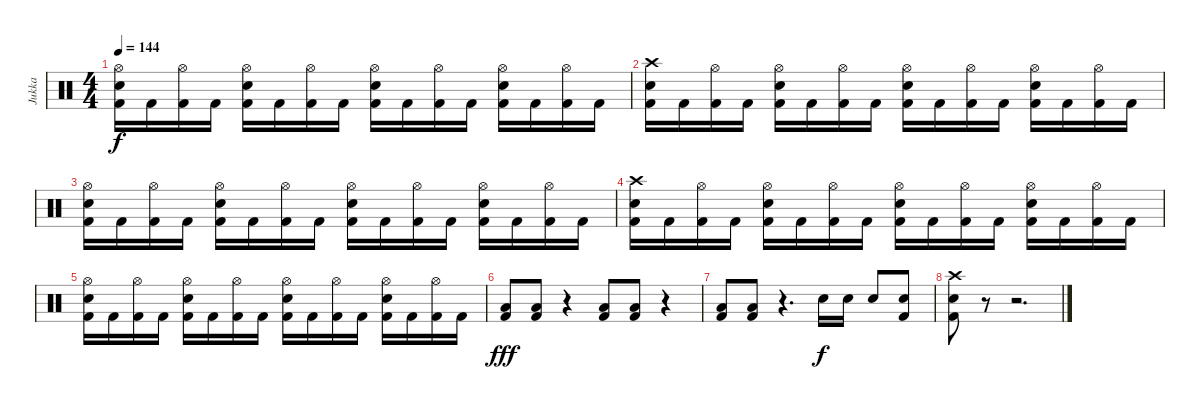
\track ("Jukka" "Jukka") {instrument percussion}
\staff {score}
\articulation defaults
\ts (4 4)
\tempo 144
\clef neutral
\ks c
("Hi-Hat (open)" "Electric Snare (hit)" "Kick (hit) 2").16{dy f} "Kick (hit) 2".16 ("Hi-Hat (open)" "Kick (hit) 2").16 "Kick (hit) 2".16 ("Hi-Hat (open)" "Electric Snare (hit)" "Kick (hit) 2").16 "Kick (hit) 2".16 ("Hi-Hat (open)" "Kick (hit) 2").16 "Kick (hit) 2".16 ("Hi-Hat (open)" "Electric Snare (hit)" "Kick (hit) 2").16 "Kick (hit) 2".16 ("Hi-Hat (open)" "Kick (hit) 2").16 "Kick (hit) 2".16 ("Hi-Hat (open)" "Electric Snare (hit)" "Kick (hit) 2").16 "Kick (hit) 2".16 ("Hi-Hat (open)" "Kick (hit) 2").16 "Kick (hit) 2".16 |
("Crash high (hit)" "Electric Snare (hit)" "Kick (hit) 2").16 "Kick (hit) 2".16 ("Hi-Hat (open)" "Kick (hit) 2").16 "Kick (hit) 2".16 ("Hi-Hat (open)" "Electric Snare (hit)" "Kick (hit) 2").16 "Kick (hit) 2".16 ("Hi-Hat (open)" "Kick (hit) 2").16 "Kick (hit) 2".16 ("Hi-Hat (open)" "Electric Snare (hit)" "Kick (hit) 2").16 "Kick (hit) 2".16 ("Hi-Hat (open)" "Kick (hit) 2").16 "Kick (hit) 2".16 ("Hi-Hat (open)" "Electric Snare (hit)" "Kick (hit) 2").16 "Kick (hit) 2".16 ("Hi-Hat (open)" "Kick (hit) 2").16 "Kick (hit) 2".16 |
("Hi-Hat (open)" "Electric Snare (hit)" "Kick (hit) 2").16 "Kick (hit) 2".16 ("Hi-Hat (open)" "Kick (hit) 2").16 "Kick (hit) 2".16 ("Hi-Hat (open)" "Electric Snare (hit)" "Kick (hit) 2").16 "Kick (hit) 2".16 ("Hi-Hat (open)" "Kick (hit) 2").16 "Kick (hit) 2".16 ("Hi-Hat (open)" "Electric Snare (hit)" "Kick (hit) 2").16 "Kick (hit) 2".16 ("Hi-Hat (open)" "Kick (hit) 2").16 "Kick (hit) 2".16 ("Hi-Hat (open)" "Electric Snare (hit)" "Kick (hit) 2").16 "Kick (hit) 2".16 ("Hi-Hat (open)" "Kick (hit) 2").16 "Kick (hit) 2".16 |
("Crash high (hit)" "Electric Snare (hit)" "Kick (hit) 2").16 "Kick (hit) 2".16 ("Hi-Hat (open)" "Kick (hit) 2").16 "Kick (hit) 2".16 ("Hi-Hat (open)" "Electric Snare (hit)" "Kick (hit) 2").16 "Kick (hit) 2".16 ("Hi-Hat (open)" "Kick (hit) 2").16 "Kick (hit) 2".16 ("Hi-Hat (open)" "Electric Snare (hit)" "Kick (hit) 2").16 "Kick (hit) 2".16 ("Hi-Hat (open)" "Kick (hit) 2").16 "Kick (hit) 2".16 ("Hi-Hat (open)" "Electric Snare (hit)" "Kick (hit) 2").16 "Kick (hit) 2".16 ("Hi-Hat (open)" "Kick (hit) 2").16 "Kick (hit) 2".16 |
("Hi-Hat (open)" "Electric Snare (hit)" "Kick (hit) 2").16 "Kick (hit) 2".16 ("Hi-Hat (open)" "Kick (hit) 2").16 "Kick (hit) 2".16 ("Hi-Hat (open)" "Electric Snare (hit)" "Kick (hit) 2").16 "Kick (hit) 2".16 ("Hi-Hat (open)" "Kick (hit) 2").16 "Kick (hit) 2".16 ("Hi-Hat (open)" "Electric Snare (hit)" "Kick (hit) 2").16 "Kick (hit) 2".16 ("Hi-Hat (open)" "Kick (hit) 2").16 "Kick (hit) 2".16 ("Hi-Hat (open)" "Electric Snare (hit)" "Kick (hit) 2").16 "Kick (hit) 2".16 ("Hi-Hat (open)" "Kick (hit) 2").16 "Kick (hit) 2".16 |
("Low Tom (hit)" "Kick (hit) 2").8{dy fff} ("Low Tom (hit)" "Kick (hit) 2").8 r.4 ("Low Tom (hit)" "Kick (hit) 2").8 ("Low Tom (hit)" "Kick (hit) 2").8 r.4 |
("Low Tom (hit)" "Kick (hit) 2").8 ("Low Tom (hit)" "Kick (hit) 2").8 r.4{d} "Electric Snare (hit)".16{dy f} "Electric Snare (hit)".16 "Electric Snare (hit)".8 ("Electric Snare (hit)" "Kick (hit) 2").8 |
("Crash high (hit)" "Electric Snare (hit)" "Kick (hit) 2").8 r.8 r.2{d}
